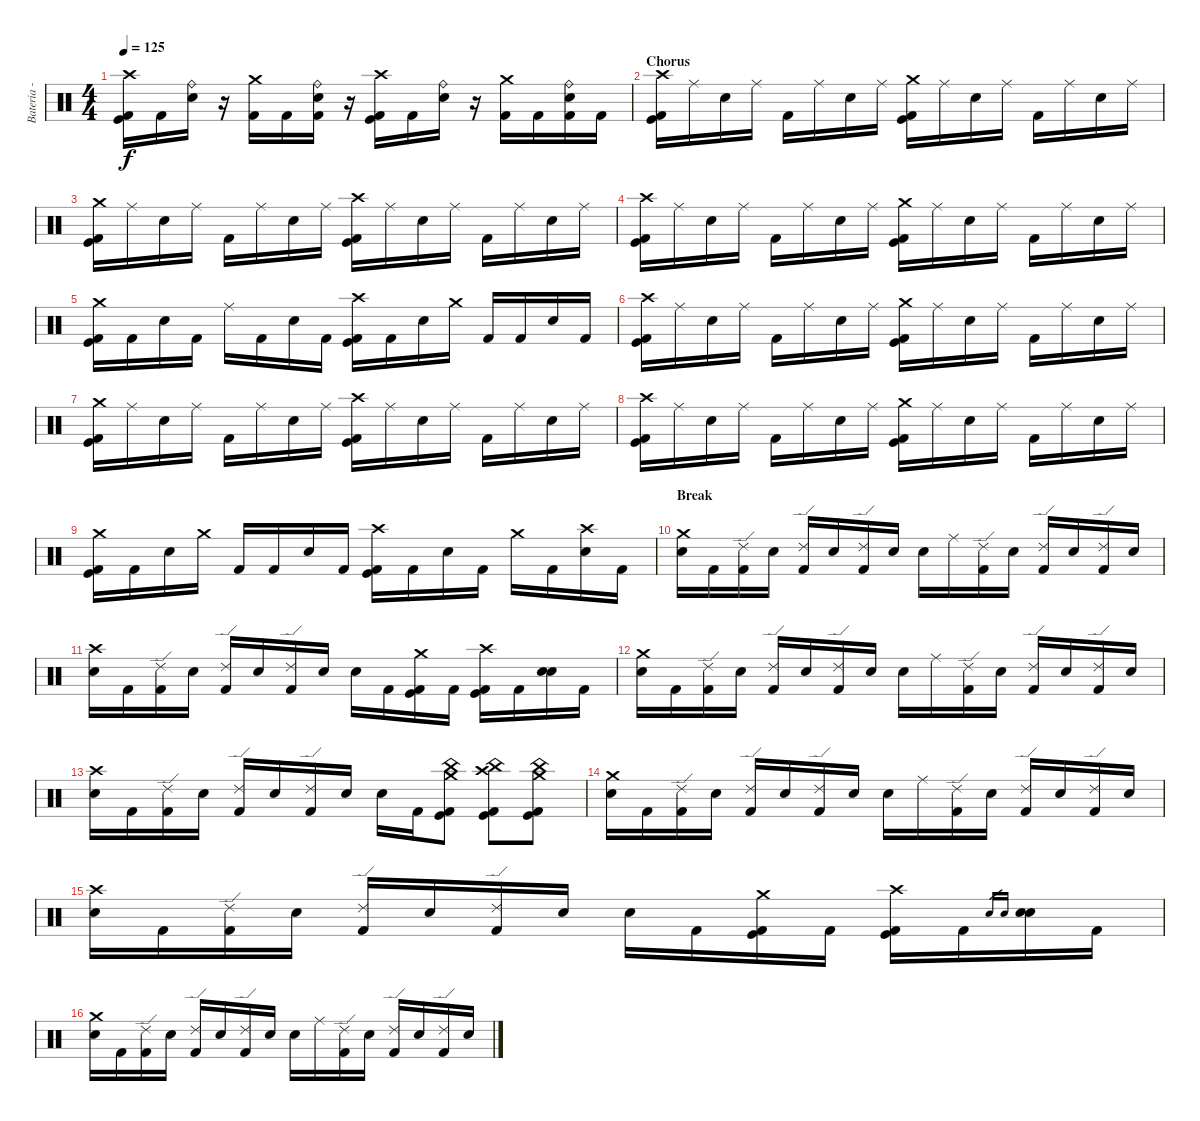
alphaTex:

\track ("Bateria - Drums" "Bateria - ") {instrument percussion}
\staff {score}
\articulation defaults
\ts (4 4)
\tempo 125
\clef neutral
\ks c
("Crash high (hit)" "Kick (hit)" "Kick (hit) 2").16{dy f} "Kick (hit) 2".16 ("Ride (bell)" "Electric Snare (hit)").16 r.16 ("Crash medium (hit)" "Kick (hit) 2").16 "Kick (hit) 2".16 ("Ride (bell)" "Electric Snare (hit)" "Kick (hit) 2").16 r.16 ("Crash high (hit)" "Kick (hit)" "Kick (hit) 2").16 "Kick (hit) 2".16 ("Ride (bell)" "Electric Snare (hit)").16 r.16 ("Crash medium (hit)" "Kick (hit) 2").16 "Kick (hit) 2".16 ("Ride (bell)" "Electric Snare (hit)" "Kick (hit) 2").16 "Kick (hit) 2".16 |
\section ("" "Chorus")
("Crash high (hit)" "Kick (hit)" "Kick (hit) 2").16 "Ride (middle)".16 "Electric Snare (hit)".16 "Ride (middle)".16 "Kick (hit) 2".16 "Ride (middle)".16 "Electric Snare (hit)".16 "Ride (middle)".16 ("Crash medium (hit)" "Kick (hit)" "Kick (hit) 2").16 "Ride (middle)".16 "Electric Snare (hit)".16 "Ride (middle)".16 "Kick (hit) 2".16 "Ride (middle)".16 "Electric Snare (hit)".16 "Ride (middle)".16 |
("Crash medium (hit)" "Kick (hit)" "Kick (hit) 2").16 "Ride (middle)".16 "Electric Snare (hit)".16 "Ride (middle)".16 "Kick (hit) 2".16 "Ride (middle)".16 "Electric Snare (hit)".16 "Ride (middle)".16 ("Crash high (hit)" "Kick (hit)" "Kick (hit) 2").16 "Ride (middle)".16 "Electric Snare (hit)".16 "Ride (middle)".16 "Kick (hit) 2".16 "Ride (middle)".16 "Electric Snare (hit)".16 "Ride (middle)".16 |
("Crash high (hit)" "Kick (hit)" "Kick (hit) 2").16 "Ride (middle)".16 "Electric Snare (hit)".16 "Ride (middle)".16 "Kick (hit) 2".16 "Ride (middle)".16 "Electric Snare (hit)".16 "Ride (middle)".16 ("Crash medium (hit)" "Kick (hit)" "Kick (hit) 2").16 "Ride (middle)".16 "Electric Snare (hit)".16 "Ride (middle)".16 "Kick (hit) 2".16 "Ride (middle)".16 "Electric Snare (hit)".16 "Ride (middle)".16 |
("Crash medium (hit)" "Kick (hit)" "Kick (hit) 2").16 "Kick (hit) 2".16 "Electric Snare (hit)".16 "Kick (hit) 2".16 "Ride (middle)".16 "Kick (hit) 2".16 "Electric Snare (hit)".16 "Kick (hit) 2".16 ("Crash high (hit)" "Kick (hit)" "Kick (hit) 2").16 "Kick (hit) 2".16 "Electric Snare (hit)".16 "Crash medium (hit)".16 "Kick (hit) 2".16 "Kick (hit) 2".16 "Electric Snare (hit)".16 "Kick (hit) 2".16 |
("Crash high (hit)" "Kick (hit)" "Kick (hit) 2").16 "Ride (middle)".16 "Electric Snare (hit)".16 "Ride (middle)".16 "Kick (hit) 2".16 "Ride (middle)".16 "Electric Snare (hit)".16 "Ride (middle)".16 ("Crash medium (hit)" "Kick (hit)" "Kick (hit) 2").16 "Ride (middle)".16 "Electric Snare (hit)".16 "Ride (middle)".16 "Kick (hit) 2".16 "Ride (middle)".16 "Electric Snare (hit)".16 "Ride (middle)".16 |
("Crash medium (hit)" "Kick (hit)" "Kick (hit) 2").16 "Ride (middle)".16 "Electric Snare (hit)".16 "Ride (middle)".16 "Kick (hit) 2".16 "Ride (middle)".16 "Electric Snare (hit)".16 "Ride (middle)".16 ("Crash high (hit)" "Kick (hit)" "Kick (hit) 2").16 "Ride (middle)".16 "Electric Snare (hit)".16 "Ride (middle)".16 "Kick (hit) 2".16 "Ride (middle)".16 "Electric Snare (hit)".16 "Ride (middle)".16 |
("Crash high (hit)" "Kick (hit)" "Kick (hit) 2").16 "Ride (middle)".16 "Electric Snare (hit)".16 "Ride (middle)".16 "Kick (hit) 2".16 "Ride (middle)".16 "Electric Snare (hit)".16 "Ride (middle)".16 ("Crash medium (hit)" "Kick (hit)" "Kick (hit) 2").16 "Ride (middle)".16 "Electric Snare (hit)".16 "Ride (middle)".16 "Kick (hit) 2".16 "Ride (middle)".16 "Electric Snare (hit)".16 "Ride (middle)".16 |
("Crash medium (hit)" "Kick (hit)" "Kick (hit) 2").16 "Kick (hit) 2".16 "Electric Snare (hit)".16 "Crash medium (hit)".16 "Kick (hit) 2".16 "Kick (hit) 2".16 "Electric Snare (hit)".16 "Kick (hit) 2".16 ("Crash high (hit)" "Kick (hit)" "Kick (hit) 2").16 "Kick (hit) 2".16 "Electric Snare (hit)".16 "Kick (hit) 2".16 "Crash medium (hit)".16 "Kick (hit) 2".16 ("Crash high (hit)" "Electric Snare (hit)").16 "Kick (hit) 2".16 |
\section ("" "Break")
("Crash medium (hit)" "Snare (hit) 2").16 "Kick (hit) 2".16 ("Ride (edge) 2" "Kick (hit) 2").16 "Snare (hit) 2".16 ("Ride (edge) 2" "Kick (hit) 2").16 "Electric Snare (hit)".16 ("Ride (edge) 2" "Kick (hit) 2").16 "Electric Snare (hit)".16 "Snare (hit) 2".16 "Ride (middle)".16 ("Ride (edge) 2" "Kick (hit) 2").16 "Snare (hit) 2".16 ("Ride (edge) 2" "Kick (hit) 2").16 "Electric Snare (hit)".16 ("Ride (edge) 2" "Kick (hit) 2").16 "Electric Snare (hit)".16 |
("Crash high (hit)" "Snare (hit) 2").16 "Kick (hit) 2".16 ("Ride (edge) 2" "Kick (hit) 2").16 "Snare (hit) 2".16 ("Ride (edge) 2" "Kick (hit) 2").16 "Electric Snare (hit)".16 ("Ride (edge) 2" "Kick (hit) 2").16 "Electric Snare (hit)".16 "Snare (hit) 2".16 "Kick (hit) 2".16 ("Crash medium (hit)" "Kick (hit)" "Kick (hit) 2").16 "Kick (hit) 2".16 ("Crash high (hit)" "Kick (hit)" "Kick (hit) 2").16 "Kick (hit) 2".16 ("Snare (hit) 2" "Snare (hit) 2").16 "Kick (hit) 2".16 |
("Crash medium (hit)" "Snare (hit) 2").16 "Kick (hit) 2".16 ("Ride (edge) 2" "Kick (hit) 2").16 "Snare (hit) 2".16 ("Ride (edge) 2" "Kick (hit) 2").16 "Electric Snare (hit)".16 ("Ride (edge) 2" "Kick (hit) 2").16 "Electric Snare (hit)".16 "Snare (hit) 2".16 "Ride (middle)".16 ("Ride (edge) 2" "Kick (hit) 2").16 "Snare (hit) 2".16 ("Ride (edge) 2" "Kick (hit) 2").16 "Electric Snare (hit)".16 ("Ride (edge) 2" "Kick (hit) 2").16 "Electric Snare (hit)".16 |
("Crash high (hit)" "Snare (hit) 2").16 "Kick (hit) 2".16 ("Ride (edge) 2" "Kick (hit) 2").16 "Snare (hit) 2".16 ("Ride (edge) 2" "Kick (hit) 2").16 "Electric Snare (hit)".16 ("Ride (edge) 2" "Kick (hit) 2").16 "Electric Snare (hit)".16 "Snare (hit) 2".16 "Kick (hit) 2".16 ("China (hit)" "Crash medium (hit)" "Kick (hit)" "Kick (hit) 2").8 ("China (hit)" "Crash high (hit)" "Kick (hit)" "Kick (hit) 2").8 ("China (hit)" "Crash medium (hit)" "Kick (hit)" "Kick (hit) 2").8 |
("Crash medium (hit)" "Snare (hit) 2").16 "Kick (hit) 2".16 ("Ride (edge) 2" "Kick (hit) 2").16 "Snare (hit) 2".16 ("Ride (edge) 2" "Kick (hit) 2").16 "Electric Snare (hit)".16 ("Ride (edge) 2" "Kick (hit) 2").16 "Electric Snare (hit)".16 "Snare (hit) 2".16 "Ride (middle)".16 ("Ride (edge) 2" "Kick (hit) 2").16 "Snare (hit) 2".16 ("Ride (edge) 2" "Kick (hit) 2").16 "Electric Snare (hit)".16 ("Ride (edge) 2" "Kick (hit) 2").16 "Electric Snare (hit)".16 |
("Crash high (hit)" "Snare (hit) 2").16 "Kick (hit) 2".16 ("Ride (edge) 2" "Kick (hit) 2").16 "Snare (hit) 2".16 ("Ride (edge) 2" "Kick (hit) 2").16 "Electric Snare (hit)".16 ("Ride (edge) 2" "Kick (hit) 2").16 "Electric Snare (hit)".16 "Snare (hit) 2".16 "Kick (hit) 2".16 ("Crash medium (hit)" "Kick (hit)" "Kick (hit) 2").16 "Kick (hit) 2".16 ("Crash high (hit)" "Kick (hit)" "Kick (hit) 2").16 "Kick (hit) 2".16 "Snare (hit) 2".16{gr} "Snare (hit) 2".16{gr} ("Snare (hit) 2" "Snare (hit) 2").16 "Kick (hit) 2".16 |
("Crash medium (hit)" "Snare (hit) 2").16 "Kick (hit) 2".16 ("Ride (edge) 2" "Kick (hit) 2").16 "Snare (hit) 2".16 ("Ride (edge) 2" "Kick (hit) 2").16 "Electric Snare (hit)".16 ("Ride (edge) 2" "Kick (hit) 2").16 "Electric Snare (hit)".16 "Snare (hit) 2".16 "Ride (middle)".16 ("Ride (edge) 2" "Kick (hit) 2").16 "Snare (hit) 2".16 ("Ride (edge) 2" "Kick (hit) 2").16 "Electric Snare (hit)".16 ("Ride (edge) 2" "Kick (hit) 2").16 "Electric Snare (hit)".16
